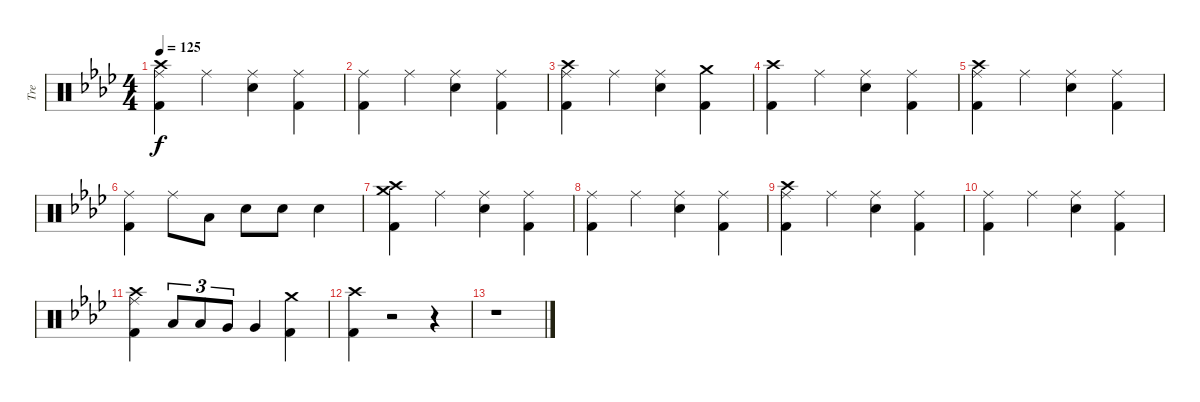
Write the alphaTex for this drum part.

\track ("Tre" "Tre") {instrument percussion}
\staff {score}
\articulation defaults
\ts (4 4)
\tempo 125
\clef neutral
\ks ab
("Crash high (hit)" "Ride (middle)" "Kick (hit) 2").4{dy f} "Ride (middle)".4 ("Ride (middle)" "Snare (hit) 2").4 ("Ride (middle)" "Kick (hit) 2").4 |
("Ride (middle)" "Kick (hit) 2").4 "Ride (middle)".4 ("Ride (middle)" "Snare (hit) 2").4 ("Ride (middle)" "Kick (hit) 2").4 |
("Crash high (hit)" "Ride (middle)" "Kick (hit) 2").4 "Ride (middle)".4 ("Ride (middle)" "Snare (hit) 2").4 ("Crash medium (hit)" "Kick (hit) 2").4 |
("Crash high (hit)" "Kick (hit) 2").4 "Ride (middle)".4 ("Ride (middle)" "Snare (hit) 2").4 ("Ride (middle)" "Kick (hit) 2").4 |
("Crash high (hit)" "Ride (middle)" "Kick (hit) 2").4 "Ride (middle)".4 ("Ride (middle)" "Snare (hit) 2").4 ("Ride (middle)" "Kick (hit) 2").4 |
("Ride (middle)" "Kick (hit) 2").4 "Ride (middle)".8 "Low Tom (hit)".8 "Snare (hit) 2".8 "Snare (hit) 2".8 "Snare (hit) 2".4 |
("Crash high (hit)" "Crash medium (hit)" "Kick (hit) 2").4 "Ride (middle)".4 ("Ride (middle)" "Snare (hit) 2").4 ("Ride (middle)" "Kick (hit) 2").4 |
("Ride (middle)" "Kick (hit) 2").4 "Ride (middle)".4 ("Ride (middle)" "Snare (hit) 2").4 ("Ride (middle)" "Kick (hit) 2").4 |
("Crash high (hit)" "Ride (middle)" "Kick (hit) 2").4 "Ride (middle)".4 ("Ride (middle)" "Snare (hit) 2").4 ("Ride (middle)" "Kick (hit) 2").4 |
("Ride (middle)" "Kick (hit) 2").4 "Ride (middle)".4 ("Ride (middle)" "Snare (hit) 2").4 ("Ride (middle)" "Kick (hit) 2").4 |
("Crash high (hit)" "Ride (middle)" "Kick (hit) 2").4 "Low Tom (hit)".8{tu (3 2)} "Low Tom (hit)".8{tu (3 2)} "Very Low Tom (hit)".8{tu (3 2)} "Very Low Tom (hit)".4 ("Crash medium (hit)" "Kick (hit) 2").4 |
("Crash high (hit)" "Kick (hit) 2").4 r.2 r.4 |
r.1
